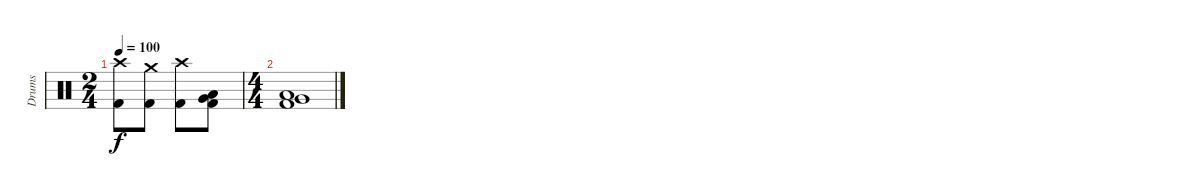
\track ("Drums" "Drums") {instrument percussion}
\staff {score}
\articulation defaults
\ts (2 4)
\tempo 100
\clef neutral
\ks c
("Crash high (hit)" "Kick (hit) 2").8{dy f} ("Crash medium (hit)" "Kick (hit) 2").8 ("Crash high (hit)" "Kick (hit) 2").8 ("Very Low Tom (hit)" "Low Floor Tom (hit)" "Kick (hit) 2").8 |
\ts (4 4)
("Very Low Tom (hit)" "Low Floor Tom (hit)" "Kick (hit) 2").1
